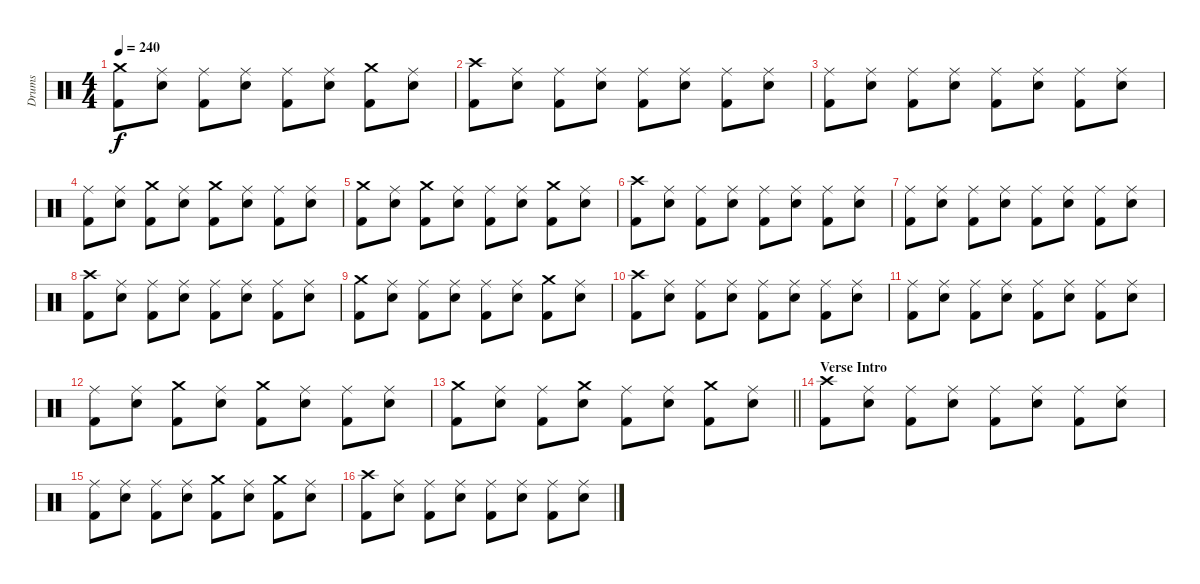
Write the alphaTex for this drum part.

\track ("Drums" "Drums") {instrument percussion}
\staff {score}
\articulation defaults
\ts (4 4)
\tempo 240
\clef neutral
\ks c
("Crash medium (hit)" "Kick (hit) 2").8{dy f} ("Ride (middle)" "Snare (hit) 2").8 ("Ride (middle)" "Kick (hit) 2").8 ("Ride (middle)" "Snare (hit) 2").8 ("Ride (middle)" "Kick (hit) 2").8 ("Ride (middle)" "Snare (hit) 2").8 ("Crash medium (hit)" "Kick (hit) 2").8 ("Ride (middle)" "Snare (hit) 2").8 |
("Crash high (hit)" "Kick (hit) 2").8 ("Ride (middle)" "Snare (hit) 2").8 ("Ride (middle)" "Kick (hit) 2").8 ("Ride (middle)" "Snare (hit) 2").8 ("Ride (middle)" "Kick (hit) 2").8 ("Ride (middle)" "Snare (hit) 2").8 ("Ride (middle)" "Kick (hit) 2").8 ("Ride (middle)" "Snare (hit) 2").8 |
("Ride (middle)" "Kick (hit) 2").8 ("Ride (middle)" "Snare (hit) 2").8 ("Ride (middle)" "Kick (hit) 2").8 ("Ride (middle)" "Snare (hit) 2").8 ("Ride (middle)" "Kick (hit) 2").8 ("Ride (middle)" "Snare (hit) 2").8 ("Ride (middle)" "Kick (hit) 2").8 ("Ride (middle)" "Snare (hit) 2").8 |
("Ride (middle)" "Kick (hit) 2").8 ("Ride (middle)" "Snare (hit) 2").8 ("Crash medium (hit)" "Kick (hit) 2").8 ("Ride (middle)" "Snare (hit) 2").8 ("Crash medium (hit)" "Kick (hit) 2").8 ("Ride (middle)" "Snare (hit) 2").8 ("Ride (middle)" "Kick (hit) 2").8 ("Ride (middle)" "Snare (hit) 2").8 |
("Crash medium (hit)" "Kick (hit) 2").8 ("Ride (middle)" "Snare (hit) 2").8 ("Crash medium (hit)" "Kick (hit) 2").8 ("Ride (middle)" "Snare (hit) 2").8 ("Ride (middle)" "Kick (hit) 2").8 ("Ride (middle)" "Snare (hit) 2").8 ("Crash medium (hit)" "Kick (hit) 2").8 ("Ride (middle)" "Snare (hit) 2").8 |
("Crash high (hit)" "Kick (hit) 2").8 ("Ride (middle)" "Snare (hit) 2").8 ("Ride (middle)" "Kick (hit) 2").8 ("Ride (middle)" "Snare (hit) 2").8 ("Ride (middle)" "Kick (hit) 2").8 ("Ride (middle)" "Snare (hit) 2").8 ("Ride (middle)" "Kick (hit) 2").8 ("Ride (middle)" "Snare (hit) 2").8 |
("Ride (middle)" "Kick (hit) 2").8 ("Ride (middle)" "Snare (hit) 2").8 ("Ride (middle)" "Kick (hit) 2").8 ("Ride (middle)" "Snare (hit) 2").8 ("Ride (middle)" "Kick (hit) 2").8 ("Ride (middle)" "Snare (hit) 2").8 ("Ride (middle)" "Kick (hit) 2").8 ("Ride (middle)" "Snare (hit) 2").8 |
("Crash high (hit)" "Kick (hit) 2").8 ("Ride (middle)" "Snare (hit) 2").8 ("Ride (middle)" "Kick (hit) 2").8 ("Ride (middle)" "Snare (hit) 2").8 ("Ride (middle)" "Kick (hit) 2").8 ("Ride (middle)" "Snare (hit) 2").8 ("Ride (middle)" "Kick (hit) 2").8 ("Ride (middle)" "Snare (hit) 2").8 |
("Crash medium (hit)" "Kick (hit) 2").8 ("Ride (middle)" "Snare (hit) 2").8 ("Ride (middle)" "Kick (hit) 2").8 ("Ride (middle)" "Snare (hit) 2").8 ("Ride (middle)" "Kick (hit) 2").8 ("Ride (middle)" "Snare (hit) 2").8 ("Crash medium (hit)" "Kick (hit) 2").8 ("Ride (middle)" "Snare (hit) 2").8 |
("Crash high (hit)" "Kick (hit) 2").8 ("Ride (middle)" "Snare (hit) 2").8 ("Ride (middle)" "Kick (hit) 2").8 ("Ride (middle)" "Snare (hit) 2").8 ("Ride (middle)" "Kick (hit) 2").8 ("Ride (middle)" "Snare (hit) 2").8 ("Ride (middle)" "Kick (hit) 2").8 ("Ride (middle)" "Snare (hit) 2").8 |
("Ride (middle)" "Kick (hit) 2").8 ("Ride (middle)" "Snare (hit) 2").8 ("Ride (middle)" "Kick (hit) 2").8 ("Ride (middle)" "Snare (hit) 2").8 ("Ride (middle)" "Kick (hit) 2").8 ("Ride (middle)" "Snare (hit) 2").8 ("Ride (middle)" "Kick (hit) 2").8 ("Ride (middle)" "Snare (hit) 2").8 |
("Ride (middle)" "Kick (hit) 2").8 ("Ride (middle)" "Snare (hit) 2").8 ("Crash medium (hit)" "Kick (hit) 2").8 ("Ride (middle)" "Snare (hit) 2").8 ("Crash medium (hit)" "Kick (hit) 2").8 ("Ride (middle)" "Snare (hit) 2").8 ("Ride (middle)" "Kick (hit) 2").8 ("Ride (middle)" "Snare (hit) 2").8 |
\barLineRight lightlight
("Crash medium (hit)" "Kick (hit) 2").8 ("Ride (middle)" "Snare (hit) 2").8 ("Ride (middle)" "Kick (hit) 2").8 ("Crash medium (hit)" "Snare (hit) 2").8 ("Ride (middle)" "Kick (hit) 2").8 ("Ride (middle)" "Snare (hit) 2").8 ("Crash medium (hit)" "Kick (hit) 2").8 ("Ride (middle)" "Snare (hit) 2").8 |
\section ("" "Verse Intro")
("Crash high (hit)" "Kick (hit) 2").8 ("Ride (middle)" "Snare (hit) 2").8 ("Ride (middle)" "Kick (hit) 2").8 ("Ride (middle)" "Snare (hit) 2").8 ("Ride (middle)" "Kick (hit) 2").8 ("Ride (middle)" "Snare (hit) 2").8 ("Ride (middle)" "Kick (hit) 2").8 ("Ride (middle)" "Snare (hit) 2").8 |
("Ride (middle)" "Kick (hit) 2").8 ("Ride (middle)" "Snare (hit) 2").8 ("Ride (middle)" "Kick (hit) 2").8 ("Ride (middle)" "Snare (hit) 2").8 ("Crash medium (hit)" "Kick (hit) 2").8 ("Ride (middle)" "Snare (hit) 2").8 ("Crash medium (hit)" "Kick (hit) 2").8 ("Ride (middle)" "Snare (hit) 2").8 |
("Crash high (hit)" "Kick (hit) 2").8 ("Ride (middle)" "Snare (hit) 2").8 ("Ride (middle)" "Kick (hit) 2").8 ("Ride (middle)" "Snare (hit) 2").8 ("Ride (middle)" "Kick (hit) 2").8 ("Ride (middle)" "Snare (hit) 2").8 ("Ride (middle)" "Kick (hit) 2").8 ("Ride (middle)" "Snare (hit) 2").8
